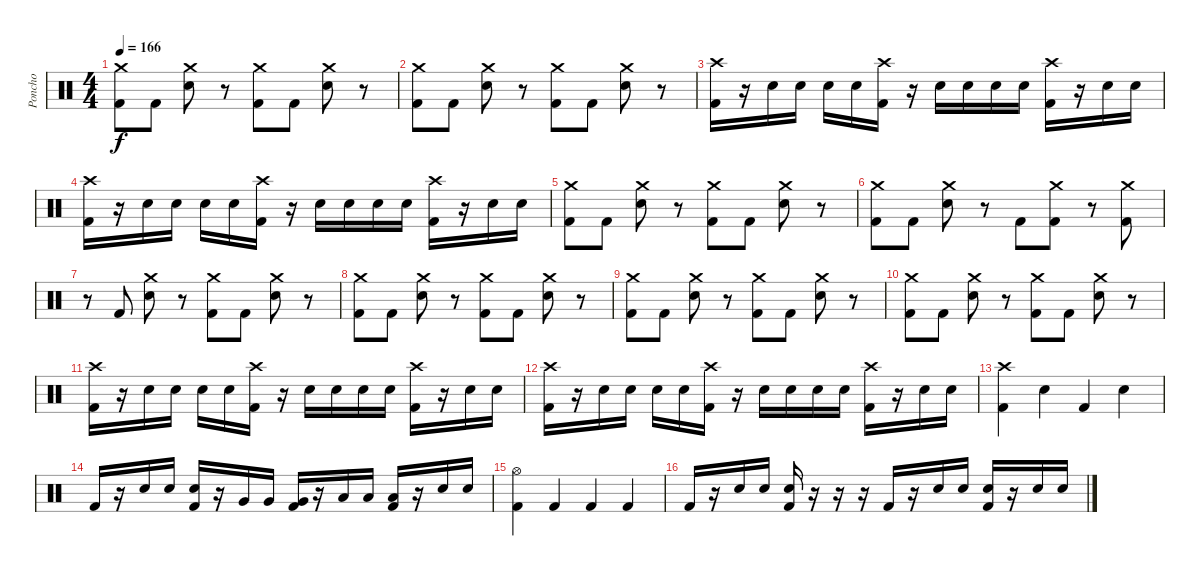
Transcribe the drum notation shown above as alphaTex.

\track ("Poncho" "Poncho") {instrument percussion}
\staff {score}
\articulation defaults
\ts (4 4)
\tempo 166
\clef neutral
\ks c
("Crash medium (hit)" "Kick (hit) 2").8{dy f} "Kick (hit) 2".8 ("Crash medium (hit)" "Electric Snare (hit)").8 r.8 ("Crash medium (hit)" "Kick (hit) 2").8 "Kick (hit) 2".8 ("Crash medium (hit)" "Electric Snare (hit)").8 r.8 |
("Crash medium (hit)" "Kick (hit) 2").8 "Kick (hit) 2".8 ("Crash medium (hit)" "Electric Snare (hit)").8 r.8 ("Crash medium (hit)" "Kick (hit) 2").8 "Kick (hit) 2".8 ("Crash medium (hit)" "Electric Snare (hit)").8 r.8 |
("Crash high (hit)" "Kick (hit) 2").16 r.16 "Electric Snare (hit)".16 "Electric Snare (hit)".16 "Electric Snare (hit)".16 "Electric Snare (hit)".16 ("Crash high (hit)" "Kick (hit) 2").16 r.16 "Electric Snare (hit)".16 "Electric Snare (hit)".16 "Electric Snare (hit)".16 "Electric Snare (hit)".16 ("Crash high (hit)" "Kick (hit) 2").16 r.16 "Electric Snare (hit)".16 "Electric Snare (hit)".16 |
("Crash high (hit)" "Kick (hit) 2").16 r.16 "Electric Snare (hit)".16 "Electric Snare (hit)".16 "Electric Snare (hit)".16 "Electric Snare (hit)".16 ("Crash high (hit)" "Kick (hit) 2").16 r.16 "Electric Snare (hit)".16 "Electric Snare (hit)".16 "Electric Snare (hit)".16 "Electric Snare (hit)".16 ("Crash high (hit)" "Kick (hit) 2").16 r.16 "Electric Snare (hit)".16 "Electric Snare (hit)".16 |
("Crash medium (hit)" "Kick (hit) 2").8 "Kick (hit) 2".8 ("Crash medium (hit)" "Electric Snare (hit)").8 r.8 ("Crash medium (hit)" "Kick (hit) 2").8 "Kick (hit) 2".8 ("Crash medium (hit)" "Electric Snare (hit)").8 r.8 |
("Crash medium (hit)" "Kick (hit) 2").8 "Kick (hit) 2".8 ("Crash medium (hit)" "Electric Snare (hit)").8 r.8 "Kick (hit) 2".8 ("Crash medium (hit)" "Kick (hit) 2").8 r.8 ("Crash medium (hit)" "Kick (hit) 2").8 |
r.8 "Kick (hit) 2".8 ("Crash medium (hit)" "Electric Snare (hit)").8 r.8 ("Crash medium (hit)" "Kick (hit) 2").8 "Kick (hit) 2".8 ("Crash medium (hit)" "Electric Snare (hit)").8 r.8 |
("Crash medium (hit)" "Kick (hit) 2").8 "Kick (hit) 2".8 ("Crash medium (hit)" "Electric Snare (hit)").8 r.8 ("Crash medium (hit)" "Kick (hit) 2").8 "Kick (hit) 2".8 ("Crash medium (hit)" "Electric Snare (hit)").8 r.8 |
("Crash medium (hit)" "Kick (hit) 2").8 "Kick (hit) 2".8 ("Crash medium (hit)" "Electric Snare (hit)").8 r.8 ("Crash medium (hit)" "Kick (hit) 2").8 "Kick (hit) 2".8 ("Crash medium (hit)" "Electric Snare (hit)").8 r.8 |
("Crash medium (hit)" "Kick (hit) 2").8 "Kick (hit) 2".8 ("Crash medium (hit)" "Electric Snare (hit)").8 r.8 ("Crash medium (hit)" "Kick (hit) 2").8 "Kick (hit) 2".8 ("Crash medium (hit)" "Electric Snare (hit)").8 r.8 |
("Crash high (hit)" "Kick (hit) 2").16 r.16 "Electric Snare (hit)".16 "Electric Snare (hit)".16 "Electric Snare (hit)".16 "Electric Snare (hit)".16 ("Crash high (hit)" "Kick (hit) 2").16 r.16 "Electric Snare (hit)".16 "Electric Snare (hit)".16 "Electric Snare (hit)".16 "Electric Snare (hit)".16 ("Crash high (hit)" "Kick (hit) 2").16 r.16 "Electric Snare (hit)".16 "Electric Snare (hit)".16 |
("Crash high (hit)" "Kick (hit) 2").16 r.16 "Electric Snare (hit)".16 "Electric Snare (hit)".16 "Electric Snare (hit)".16 "Electric Snare (hit)".16 ("Crash high (hit)" "Kick (hit) 2").16 r.16 "Electric Snare (hit)".16 "Electric Snare (hit)".16 "Electric Snare (hit)".16 "Electric Snare (hit)".16 ("Crash high (hit)" "Kick (hit) 2").16 r.16 "Electric Snare (hit)".16 "Electric Snare (hit)".16 |
("Crash high (hit)" "Kick (hit) 2").4 "Electric Snare (hit)".4 "Kick (hit) 2".4 "Electric Snare (hit)".4 |
"Kick (hit) 2".16 r.16 "Electric Snare (hit)".16 "Electric Snare (hit)".16 ("Electric Snare (hit)" "Kick (hit) 2").16 r.16 "Very Low Tom (hit)".16 "Very Low Tom (hit)".16 ("Very Low Tom (hit)" "Kick (hit) 2").16 r.16 "Low Tom (hit)".16 "Low Tom (hit)".16 ("Low Tom (hit)" "Kick (hit) 2").16 r.16 "Electric Snare (hit)".16 "Electric Snare (hit)".16 |
("Hi-Hat (open)" "Kick (hit) 2").4 "Kick (hit) 2".4 "Kick (hit) 2".4 "Kick (hit) 2".4 |
"Kick (hit) 2".16 r.16 "Electric Snare (hit)".16 "Electric Snare (hit)".16 ("Electric Snare (hit)" "Kick (hit) 2").16 r.16 r.16 r.16 "Kick (hit) 2".16 r.16 "Electric Snare (hit)".16 "Electric Snare (hit)".16 ("Electric Snare (hit)" "Kick (hit) 2").16 r.16 "Electric Snare (hit)".16 "Electric Snare (hit)".16
